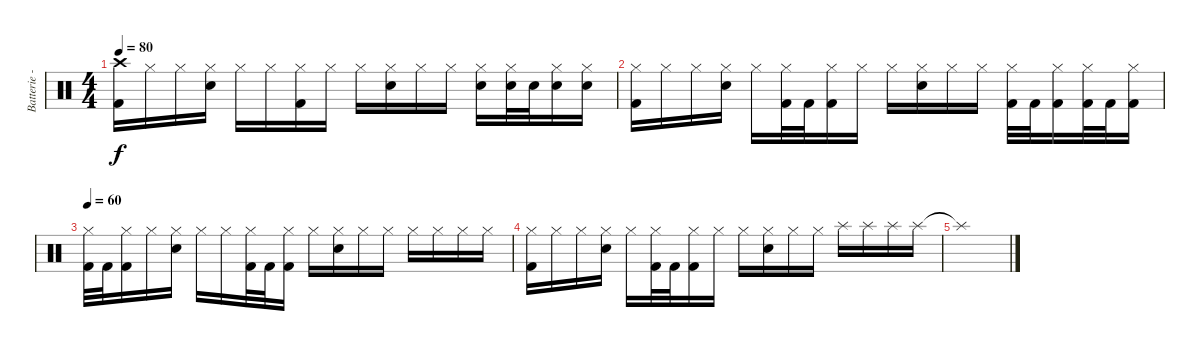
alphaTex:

\track ("Batterie - François" "Batterie -") {instrument percussion}
\staff {score}
\articulation defaults
\ts (4 4)
\tempo 80
\clef neutral
\ks c
("Crash high (hit)" "Kick (hit) 2").16{dy f} "Hi-Hat (closed)".16 "Hi-Hat (closed)".16 ("Hi-Hat (closed)" "Electric Snare (hit)").16 "Hi-Hat (closed)".16 "Hi-Hat (closed)".16 ("Hi-Hat (closed)" "Kick (hit) 2").16 "Hi-Hat (closed)".16 "Hi-Hat (closed)".16 ("Hi-Hat (closed)" "Electric Snare (hit)").16 "Hi-Hat (closed)".16 "Hi-Hat (closed)".16 ("Hi-Hat (closed)" "Electric Snare (hit)").16 ("Hi-Hat (closed)" "Electric Snare (hit)").32 "Electric Snare (hit)".32 ("Hi-Hat (closed)" "Electric Snare (hit)").16 ("Hi-Hat (closed)" "Electric Snare (hit)").16 |
("Hi-Hat (closed)" "Kick (hit) 2").16 "Hi-Hat (closed)".16 "Hi-Hat (closed)".16 ("Hi-Hat (closed)" "Electric Snare (hit)").16 "Hi-Hat (closed)".16 ("Hi-Hat (closed)" "Kick (hit) 2").32 "Kick (hit) 2".32 ("Hi-Hat (closed)" "Kick (hit) 2").16 "Hi-Hat (closed)".16 "Hi-Hat (closed)".16 ("Hi-Hat (closed)" "Electric Snare (hit)").16 "Hi-Hat (closed)".16 "Hi-Hat (closed)".16 ("Hi-Hat (closed)" "Kick (hit) 2").32 "Kick (hit) 2".32 ("Hi-Hat (closed)" "Kick (hit) 2").16 ("Hi-Hat (closed)" "Kick (hit) 2").32 "Kick (hit) 2".32 ("Hi-Hat (closed)" "Kick (hit) 2").16 |
\tempo 60
("Hi-Hat (closed)" "Kick (hit) 2").32 "Kick (hit) 2".32 ("Hi-Hat (closed)" "Kick (hit) 2").16 "Hi-Hat (closed)".16 ("Hi-Hat (closed)" "Electric Snare (hit)").16 "Hi-Hat (closed)".16 "Hi-Hat (closed)".16 ("Hi-Hat (closed)" "Kick (hit) 2").32 "Kick (hit) 2".32 ("Hi-Hat (closed)" "Kick (hit) 2").16 "Hi-Hat (closed)".16 ("Hi-Hat (closed)" "Electric Snare (hit)").16 "Hi-Hat (closed)".16 "Hi-Hat (closed)".16 "Hi-Hat (closed)".16 "Hi-Hat (closed)".16 "Hi-Hat (closed)".16 "Hi-Hat (closed)".16 |
("Hi-Hat (closed)" "Kick (hit) 2").16 "Hi-Hat (closed)".16 "Hi-Hat (closed)".16 ("Hi-Hat (closed)" "Electric Snare (hit)").16 "Hi-Hat (closed)".16 ("Hi-Hat (closed)" "Kick (hit) 2").32 "Kick (hit) 2".32 ("Hi-Hat (closed)" "Kick (hit) 2").16 "Hi-Hat (closed)".16 "Hi-Hat (closed)".16 ("Hi-Hat (closed)" "Electric Snare (hit)").16 "Hi-Hat (closed)".16 "Hi-Hat (closed)".16 "Splash (hit)".16 "Splash (hit)".16 "Splash (hit)".16 "Splash (hit)".16 |
"Splash (hit)"{t}.1
